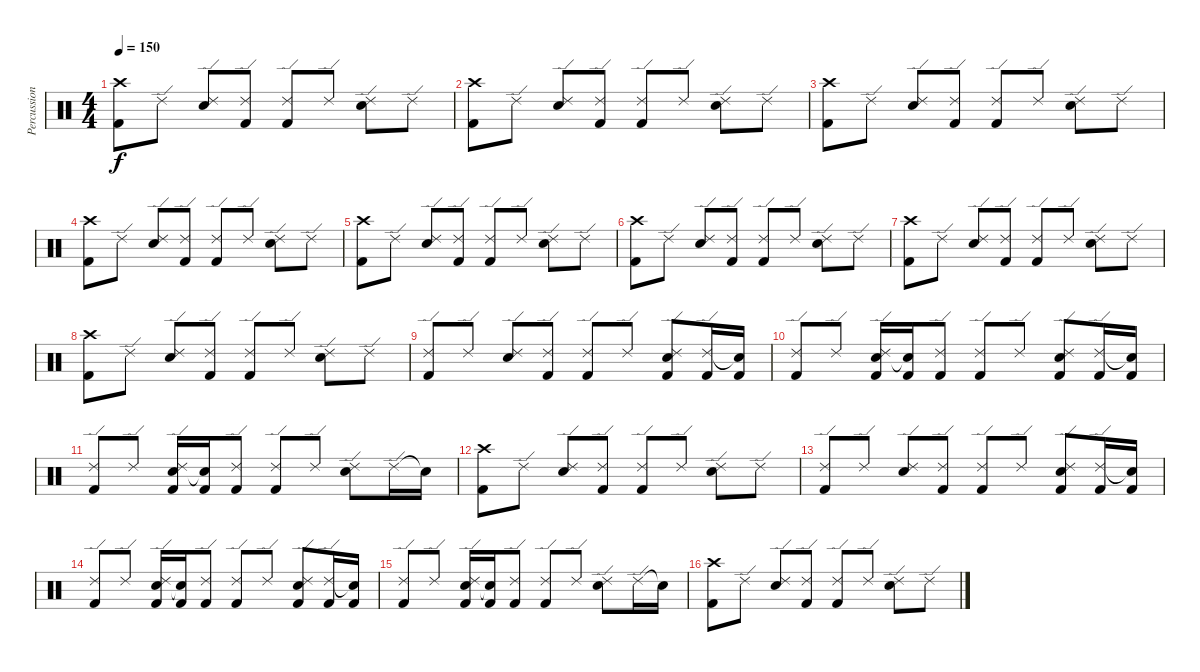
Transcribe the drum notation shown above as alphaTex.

\track ("Percussion" "Percussion") {instrument percussion}
\staff {score}
\articulation defaults
\ts (4 4)
\tempo 150
\clef neutral
\ks c
("Crash high (hit)" "Kick (hit) 2").8{dy f} "Ride (edge) 2".8 ("Ride (edge) 2" "Electric Snare (hit)").8 ("Ride (edge) 2" "Kick (hit) 2").8 ("Ride (edge) 2" "Kick (hit) 2").8 "Ride (edge) 2".8 ("Ride (edge) 2" "Electric Snare (hit)").8 "Ride (edge) 2".8 |
("Crash high (hit)" "Kick (hit) 2").8 "Ride (edge) 2".8 ("Ride (edge) 2" "Electric Snare (hit)").8 ("Ride (edge) 2" "Kick (hit) 2").8 ("Ride (edge) 2" "Kick (hit) 2").8 "Ride (edge) 2".8 ("Ride (edge) 2" "Electric Snare (hit)").8 "Ride (edge) 2".8 |
("Crash high (hit)" "Kick (hit) 2").8 "Ride (edge) 2".8 ("Ride (edge) 2" "Electric Snare (hit)").8 ("Ride (edge) 2" "Kick (hit) 2").8 ("Ride (edge) 2" "Kick (hit) 2").8 "Ride (edge) 2".8 ("Ride (edge) 2" "Electric Snare (hit)").8 "Ride (edge) 2".8 |
("Crash high (hit)" "Kick (hit) 2").8 "Ride (edge) 2".8 ("Ride (edge) 2" "Electric Snare (hit)").8 ("Ride (edge) 2" "Kick (hit) 2").8 ("Ride (edge) 2" "Kick (hit) 2").8 "Ride (edge) 2".8 ("Ride (edge) 2" "Electric Snare (hit)").8 "Ride (edge) 2".8 |
("Crash high (hit)" "Kick (hit) 2").8 "Ride (edge) 2".8 ("Ride (edge) 2" "Electric Snare (hit)").8 ("Ride (edge) 2" "Kick (hit) 2").8 ("Ride (edge) 2" "Kick (hit) 2").8 "Ride (edge) 2".8 ("Ride (edge) 2" "Electric Snare (hit)").8 "Ride (edge) 2".8 |
("Crash high (hit)" "Kick (hit) 2").8 "Ride (edge) 2".8 ("Ride (edge) 2" "Electric Snare (hit)").8 ("Ride (edge) 2" "Kick (hit) 2").8 ("Ride (edge) 2" "Kick (hit) 2").8 "Ride (edge) 2".8 ("Ride (edge) 2" "Electric Snare (hit)").8 "Ride (edge) 2".8 |
("Crash high (hit)" "Kick (hit) 2").8 "Ride (edge) 2".8 ("Ride (edge) 2" "Electric Snare (hit)").8 ("Ride (edge) 2" "Kick (hit) 2").8 ("Ride (edge) 2" "Kick (hit) 2").8 "Ride (edge) 2".8 ("Ride (edge) 2" "Electric Snare (hit)").8 "Ride (edge) 2".8 |
("Crash high (hit)" "Kick (hit) 2").8 "Ride (edge) 2".8 ("Ride (edge) 2" "Electric Snare (hit)").8 ("Ride (edge) 2" "Kick (hit) 2").8 ("Ride (edge) 2" "Kick (hit) 2").8 "Ride (edge) 2".8 ("Ride (edge) 2" "Electric Snare (hit)").8 "Ride (edge) 2".8 |
("Ride (edge) 2" "Kick (hit) 2").8 "Ride (edge) 2".8 ("Ride (edge) 2" "Electric Snare (hit)").8 ("Ride (edge) 2" "Kick (hit) 2").8 ("Ride (edge) 2" "Kick (hit) 2").8 "Ride (edge) 2".8 ("Electric Snare (hit)" "Ride (edge) 2" "Kick (hit) 2").8 ("Ride (edge) 2" "Kick (hit) 2").16 ("Snare (hit)"{t} "Kick (hit) 2").16 |
("Ride (edge) 2" "Kick (hit) 2").8 "Ride (edge) 2".8 ("Electric Snare (hit)" "Ride (edge) 2" "Kick (hit) 2").16 ("Snare (hit)"{t} "Kick (hit) 2").16 ("Ride (edge) 2" "Kick (hit) 2").8 ("Ride (edge) 2" "Kick (hit) 2").8 "Ride (edge) 2".8 ("Electric Snare (hit)" "Ride (edge) 2" "Kick (hit) 2").8 ("Ride (edge) 2" "Kick (hit) 2").16 ("Snare (hit)"{t} "Kick (hit) 2").16 |
("Ride (edge) 2" "Kick (hit) 2").8 "Ride (edge) 2".8 ("Electric Snare (hit)" "Ride (edge) 2" "Kick (hit) 2").16 ("Snare (hit)"{t} "Kick (hit) 2").16 ("Ride (edge) 2" "Kick (hit) 2").8 ("Ride (edge) 2" "Kick (hit) 2").8 "Ride (edge) 2".8 ("Electric Snare (hit)" "Ride (edge) 2").8 "Ride (edge) 2".16 "Snare (hit)"{t}.16 |
("Crash high (hit)" "Kick (hit) 2").8 "Ride (edge) 2".8 ("Ride (edge) 2" "Electric Snare (hit)").8 ("Ride (edge) 2" "Kick (hit) 2").8 ("Ride (edge) 2" "Kick (hit) 2").8 "Ride (edge) 2".8 ("Ride (edge) 2" "Electric Snare (hit)").8 "Ride (edge) 2".8 |
("Ride (edge) 2" "Kick (hit) 2").8 "Ride (edge) 2".8 ("Ride (edge) 2" "Electric Snare (hit)").8 ("Ride (edge) 2" "Kick (hit) 2").8 ("Ride (edge) 2" "Kick (hit) 2").8 "Ride (edge) 2".8 ("Electric Snare (hit)" "Ride (edge) 2" "Kick (hit) 2").8 ("Ride (edge) 2" "Kick (hit) 2").16 ("Snare (hit)"{t} "Kick (hit) 2").16 |
("Ride (edge) 2" "Kick (hit) 2").8 "Ride (edge) 2".8 ("Electric Snare (hit)" "Ride (edge) 2" "Kick (hit) 2").16 ("Snare (hit)"{t} "Kick (hit) 2").16 ("Ride (edge) 2" "Kick (hit) 2").8 ("Ride (edge) 2" "Kick (hit) 2").8 "Ride (edge) 2".8 ("Electric Snare (hit)" "Ride (edge) 2" "Kick (hit) 2").8 ("Ride (edge) 2" "Kick (hit) 2").16 ("Snare (hit)"{t} "Kick (hit) 2").16 |
("Ride (edge) 2" "Kick (hit) 2").8 "Ride (edge) 2".8 ("Electric Snare (hit)" "Ride (edge) 2" "Kick (hit) 2").16 ("Snare (hit)"{t} "Kick (hit) 2").16 ("Ride (edge) 2" "Kick (hit) 2").8 ("Ride (edge) 2" "Kick (hit) 2").8 "Ride (edge) 2".8 ("Electric Snare (hit)" "Ride (edge) 2").8 "Ride (edge) 2".16 "Snare (hit)"{t}.16 |
("Crash high (hit)" "Kick (hit) 2").8 "Ride (edge) 2".8 ("Ride (edge) 2" "Electric Snare (hit)").8 ("Ride (edge) 2" "Kick (hit) 2").8 ("Ride (edge) 2" "Kick (hit) 2").8 "Ride (edge) 2".8 ("Ride (edge) 2" "Electric Snare (hit)").8 "Ride (edge) 2".8
